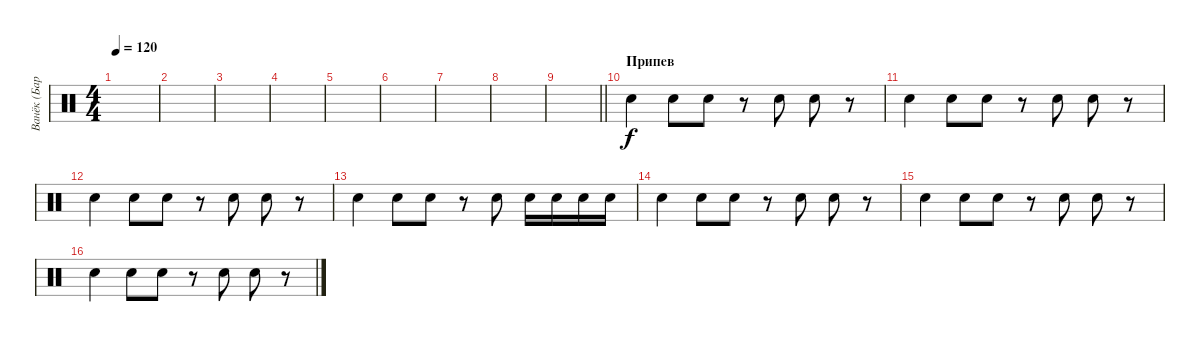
\track ("Ванёк (Барабанщик)" "Ванёк (Бар") {instrument percussion}
\staff {score}
\articulation defaults
\ts (4 4)
\tempo 120
\clef neutral
\ks c
|
|
|
|
|
|
|
|
\barLineRight lightlight
|
\section ("" "Припев")
"Electric Snare (hit)".4 "Electric Snare (hit)".8 "Electric Snare (hit)".8 r.8 "Electric Snare (hit)".8 "Electric Snare (hit)".8 r.8 |
"Electric Snare (hit)".4 "Electric Snare (hit)".8 "Electric Snare (hit)".8 r.8 "Electric Snare (hit)".8 "Electric Snare (hit)".8 r.8 |
"Electric Snare (hit)".4 "Electric Snare (hit)".8 "Electric Snare (hit)".8 r.8 "Electric Snare (hit)".8 "Electric Snare (hit)".8 r.8 |
"Electric Snare (hit)".4 "Electric Snare (hit)".8 "Electric Snare (hit)".8 r.8 "Electric Snare (hit)".8 "Electric Snare (hit)".16 "Electric Snare (hit)".16 "Electric Snare (hit)".16 "Electric Snare (hit)".16 |
"Electric Snare (hit)".4 "Electric Snare (hit)".8 "Electric Snare (hit)".8 r.8 "Electric Snare (hit)".8 "Electric Snare (hit)".8 r.8 |
"Electric Snare (hit)".4 "Electric Snare (hit)".8 "Electric Snare (hit)".8 r.8 "Electric Snare (hit)".8 "Electric Snare (hit)".8 r.8 |
"Electric Snare (hit)".4 "Electric Snare (hit)".8 "Electric Snare (hit)".8 r.8 "Electric Snare (hit)".8 "Electric Snare (hit)".8 r.8
